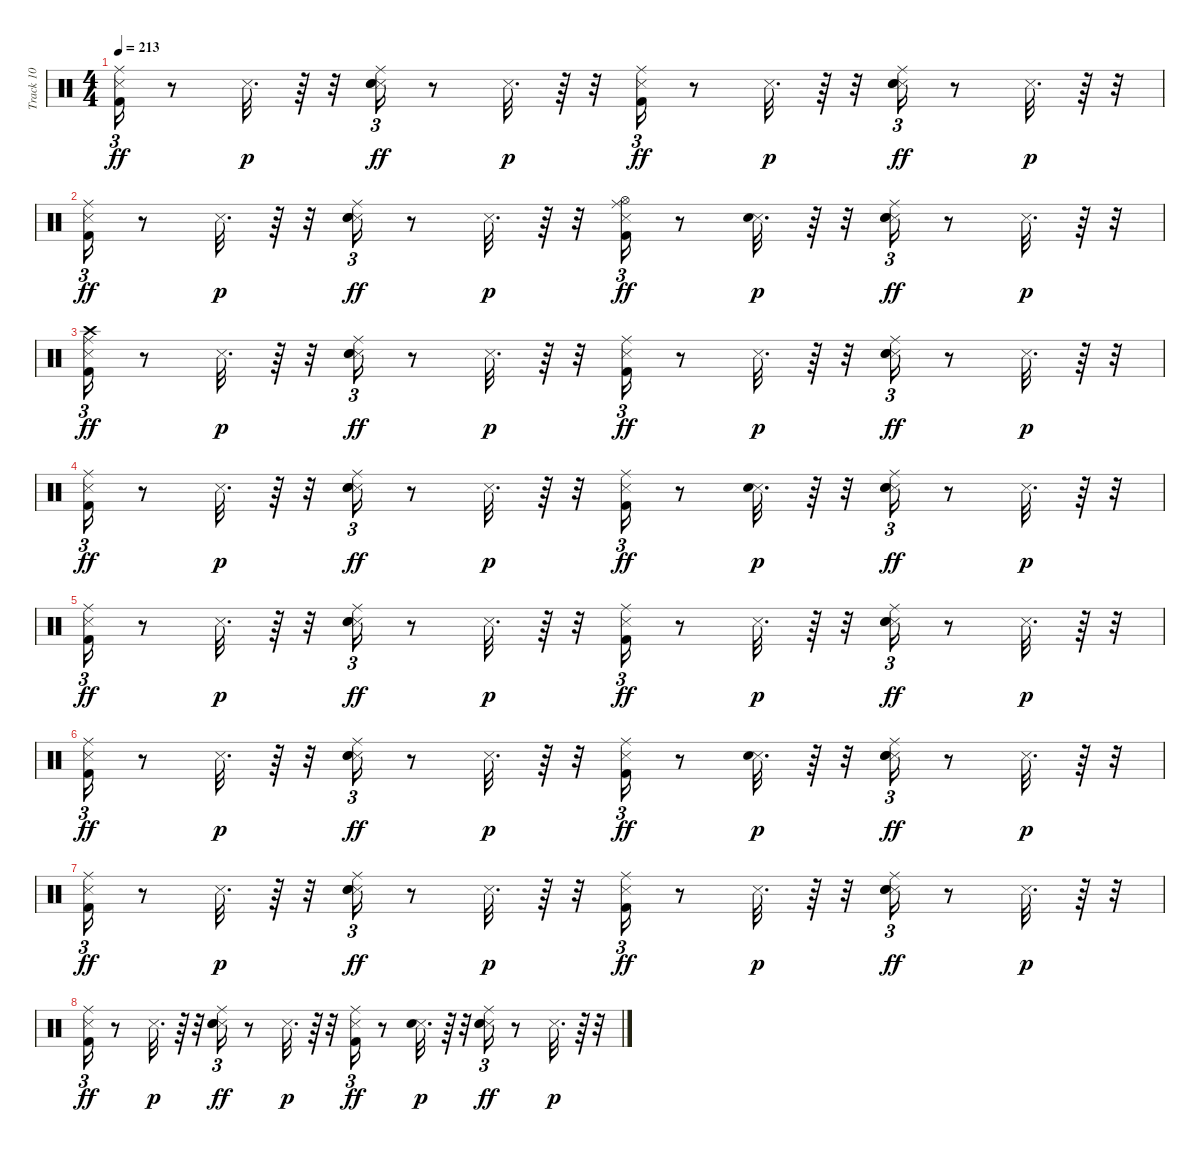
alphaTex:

\track ("Track 10" "Track 10") {instrument percussion}
\staff {score}
\articulation defaults
\ts (4 4)
\tempo 213
\clef neutral
\ks c
("Kick (hit) 2" "Snare (side stick) 3" "Ride (middle)").16{tu (3 2) dy ff} r.8 "Snare (side stick) 3".32{d dy p} r.64 r.32 ("Snare (side stick) 3" "Hand Clap (hit)" "Electric Snare (hit)" "Ride (middle)").16{tu (3 2) dy ff} r.8 "Snare (side stick) 3".32{d dy p} r.64 r.32 ("Kick (hit) 2" "Snare (side stick) 3" "Ride (middle)").16{tu (3 2) dy ff} r.8 "Snare (side stick) 3".32{d dy p} r.64 r.32 ("Snare (side stick) 3" "Hand Clap (hit)" "Electric Snare (hit)" "Ride (middle)").16{tu (3 2) dy ff} r.8 "Snare (side stick) 3".32{d dy p} r.64 r.32 |
("Kick (hit) 2" "Snare (side stick) 3" "Ride (middle)").16{tu (3 2) dy ff} r.8 "Snare (side stick) 3".32{d dy p} r.64 r.32 ("Snare (side stick) 3" "Hand Clap (hit)" "Electric Snare (hit)" "Ride (middle)").16{tu (3 2) dy ff} r.8 "Snare (side stick) 3".32{d dy p} r.64 r.32 ("Kick (hit) 2" "Snare (side stick) 3" "Hi-Hat (open)" "Ride (middle)").16{tu (3 2) dy ff} r.8 ("Snare (side stick) 3" "Electric Snare (hit)").32{d dy p} r.64 r.32 ("Snare (side stick) 3" "Hand Clap (hit)" "Electric Snare (hit)" "Ride (middle)").16{tu (3 2) dy ff} r.8 "Snare (side stick) 3".32{d dy p} r.64 r.32 |
("Kick (hit) 2" "Snare (side stick) 3" "Crash high (hit)" "Ride (middle)").16{tu (3 2) dy ff} r.8 "Snare (side stick) 3".32{d dy p} r.64 r.32 ("Snare (side stick) 3" "Hand Clap (hit)" "Electric Snare (hit)" "Ride (middle)").16{tu (3 2) dy ff} r.8 "Snare (side stick) 3".32{d dy p} r.64 r.32 ("Kick (hit) 2" "Snare (side stick) 3" "Ride (middle)").16{tu (3 2) dy ff} r.8 "Snare (side stick) 3".32{d dy p} r.64 r.32 ("Snare (side stick) 3" "Hand Clap (hit)" "Electric Snare (hit)" "Ride (middle)").16{tu (3 2) dy ff} r.8 "Snare (side stick) 3".32{d dy p} r.64 r.32 |
("Kick (hit) 2" "Snare (side stick) 3" "Ride (middle)").16{tu (3 2) dy ff} r.8 "Snare (side stick) 3".32{d dy p} r.64 r.32 ("Snare (side stick) 3" "Hand Clap (hit)" "Electric Snare (hit)" "Ride (middle)").16{tu (3 2) dy ff} r.8 "Snare (side stick) 3".32{d dy p} r.64 r.32 ("Kick (hit) 2" "Snare (side stick) 3" "Ride (middle)").16{tu (3 2) dy ff} r.8 ("Snare (side stick) 3" "Electric Snare (hit)").32{d dy p} r.64 r.32 ("Snare (side stick) 3" "Hand Clap (hit)" "Electric Snare (hit)" "Ride (middle)").16{tu (3 2) dy ff} r.8 "Snare (side stick) 3".32{d dy p} r.64 r.32 |
("Kick (hit) 2" "Snare (side stick) 3" "Ride (middle)").16{tu (3 2) dy ff} r.8 "Snare (side stick) 3".32{d dy p} r.64 r.32 ("Snare (side stick) 3" "Hand Clap (hit)" "Electric Snare (hit)" "Ride (middle)").16{tu (3 2) dy ff} r.8 "Snare (side stick) 3".32{d dy p} r.64 r.32 ("Kick (hit) 2" "Snare (side stick) 3" "Ride (middle)").16{tu (3 2) dy ff} r.8 "Snare (side stick) 3".32{d dy p} r.64 r.32 ("Snare (side stick) 3" "Hand Clap (hit)" "Electric Snare (hit)" "Ride (middle)").16{tu (3 2) dy ff} r.8 "Snare (side stick) 3".32{d dy p} r.64 r.32 |
("Kick (hit) 2" "Snare (side stick) 3" "Ride (middle)").16{tu (3 2) dy ff} r.8 "Snare (side stick) 3".32{d dy p} r.64 r.32 ("Snare (side stick) 3" "Hand Clap (hit)" "Electric Snare (hit)" "Ride (middle)").16{tu (3 2) dy ff} r.8 "Snare (side stick) 3".32{d dy p} r.64 r.32 ("Kick (hit) 2" "Snare (side stick) 3" "Ride (middle)").16{tu (3 2) dy ff} r.8 ("Snare (side stick) 3" "Electric Snare (hit)").32{d dy p} r.64 r.32 ("Snare (side stick) 3" "Hand Clap (hit)" "Electric Snare (hit)" "Ride (middle)").16{tu (3 2) dy ff} r.8 "Snare (side stick) 3".32{d dy p} r.64 r.32 |
("Kick (hit) 2" "Snare (side stick) 3" "Ride (middle)").16{tu (3 2) dy ff} r.8 "Snare (side stick) 3".32{d dy p} r.64 r.32 ("Snare (side stick) 3" "Hand Clap (hit)" "Electric Snare (hit)" "Ride (middle)").16{tu (3 2) dy ff} r.8 "Snare (side stick) 3".32{d dy p} r.64 r.32 ("Kick (hit) 2" "Snare (side stick) 3" "Ride (middle)").16{tu (3 2) dy ff} r.8 "Snare (side stick) 3".32{d dy p} r.64 r.32 ("Snare (side stick) 3" "Hand Clap (hit)" "Electric Snare (hit)" "Ride (middle)").16{tu (3 2) dy ff} r.8 "Snare (side stick) 3".32{d dy p} r.64 r.32 |
("Kick (hit) 2" "Snare (side stick) 3" "Ride (middle)").16{tu (3 2) dy ff} r.8 "Snare (side stick) 3".32{d dy p} r.64 r.32 ("Snare (side stick) 3" "Hand Clap (hit)" "Electric Snare (hit)" "Ride (middle)").16{tu (3 2) dy ff} r.8 "Snare (side stick) 3".32{d dy p} r.64 r.32 ("Kick (hit) 2" "Snare (side stick) 3" "Ride (middle)").16{tu (3 2) dy ff} r.8 ("Snare (side stick) 3" "Electric Snare (hit)").32{d dy p} r.64 r.32 ("Snare (side stick) 3" "Hand Clap (hit)" "Electric Snare (hit)" "Ride (middle)").16{tu (3 2) dy ff} r.8 "Snare (side stick) 3".32{d dy p} r.64 r.32
